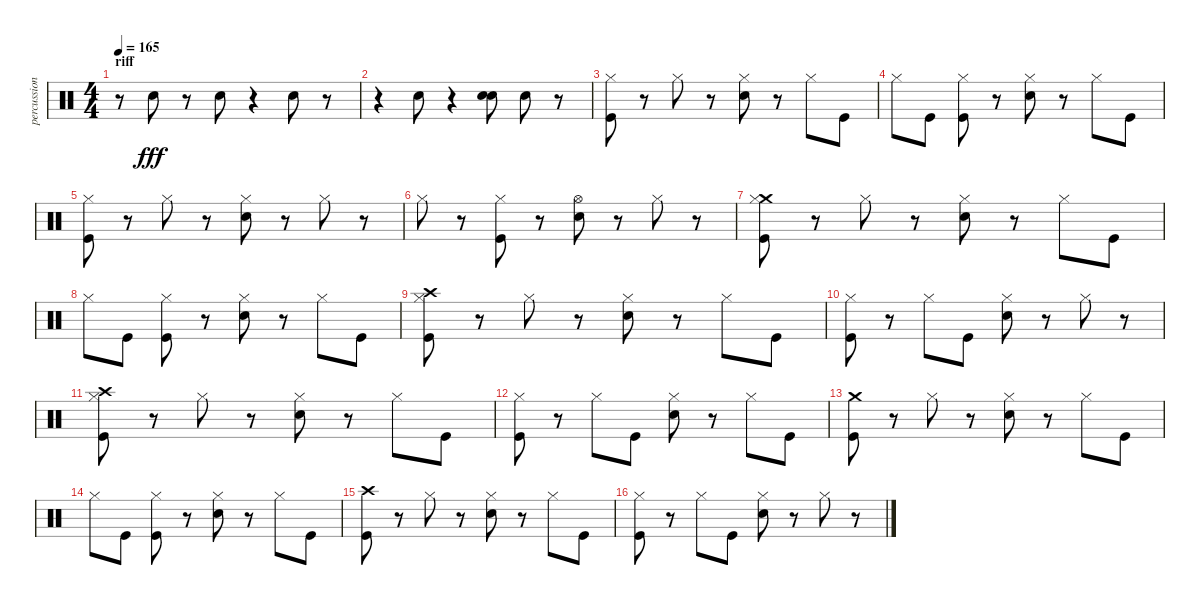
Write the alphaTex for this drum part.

\track ("percussion (Paice)" "percussion") {instrument percussion}
\staff {score}
\articulation defaults
\ts (4 4)
\section ("" "riff")
\tempo 165
\clef neutral
\ks c
r.8{dy fff} "Snare (hit) 2".8 r.8 "Snare (hit) 2".8 r.4 "Snare (hit) 2".8 r.8 |
r.4 "Snare (hit) 2".8 r.4 ("Snare (hit) 2" "Snare (hit) 2").8 "Snare (hit) 2".8 r.8 |
("Kick (hit)" "Hi-Hat (closed)").8 r.8 "Hi-Hat (closed)".8 r.8 ("Snare (hit) 2" "Hi-Hat (closed)").8 r.8 "Hi-Hat (closed)".8 "Kick (hit)".8 |
"Hi-Hat (closed)".8 "Kick (hit)".8 ("Kick (hit)" "Hi-Hat (closed)").8 r.8 ("Snare (hit) 2" "Hi-Hat (closed)").8 r.8 "Hi-Hat (closed)".8 "Kick (hit)".8 |
("Kick (hit)" "Hi-Hat (closed)").8 r.8 "Hi-Hat (closed)".8 r.8 ("Snare (hit) 2" "Hi-Hat (closed)").8 r.8 "Hi-Hat (closed)".8 r.8 |
"Hi-Hat (closed)".8 r.8 ("Kick (hit)" "Hi-Hat (closed)").8 r.8 ("Snare (hit) 2" "Hi-Hat (open)").8 r.8 "Hi-Hat (closed)".8 r.8 |
("Crash medium (hit)" "Kick (hit)" "Hi-Hat (closed)").8 r.8 "Hi-Hat (closed)".8 r.8 ("Snare (hit) 2" "Hi-Hat (closed)").8 r.8 "Hi-Hat (closed)".8 "Kick (hit)".8 |
"Hi-Hat (closed)".8 "Kick (hit)".8 ("Kick (hit)" "Hi-Hat (closed)").8 r.8 ("Snare (hit) 2" "Hi-Hat (closed)").8 r.8 "Hi-Hat (closed)".8 "Kick (hit)".8 |
("Crash high (hit)" "Kick (hit)" "Hi-Hat (closed)").8 r.8 "Hi-Hat (closed)".8 r.8 ("Snare (hit) 2" "Hi-Hat (closed)").8 r.8 "Hi-Hat (closed)".8 "Kick (hit)".8 |
("Kick (hit)" "Hi-Hat (closed)").8 r.8 "Hi-Hat (closed)".8 "Kick (hit)".8 ("Snare (hit) 2" "Hi-Hat (closed)").8 r.8 "Hi-Hat (closed)".8 r.8 |
("Crash high (hit)" "Kick (hit)" "Hi-Hat (closed)").8 r.8 "Hi-Hat (closed)".8 r.8 ("Snare (hit) 2" "Hi-Hat (closed)").8 r.8 "Hi-Hat (closed)".8 "Kick (hit)".8 |
("Kick (hit)" "Hi-Hat (closed)").8 r.8 "Hi-Hat (closed)".8 "Kick (hit)".8 ("Snare (hit) 2" "Hi-Hat (closed)").8 r.8 "Hi-Hat (closed)".8 "Kick (hit)".8 |
("Crash medium (hit)" "Kick (hit)").8 r.8 "Hi-Hat (closed)".8 r.8 ("Snare (hit) 2" "Hi-Hat (closed)").8 r.8 "Hi-Hat (closed)".8 "Kick (hit)".8 |
"Hi-Hat (closed)".8 "Kick (hit)".8 ("Kick (hit)" "Hi-Hat (closed)").8 r.8 ("Snare (hit) 2" "Hi-Hat (closed)").8 r.8 "Hi-Hat (closed)".8 "Kick (hit)".8 |
("Crash high (hit)" "Kick (hit)").8 r.8 "Hi-Hat (closed)".8 r.8 ("Snare (hit) 2" "Hi-Hat (closed)").8 r.8 "Hi-Hat (closed)".8 "Kick (hit)".8 |
("Kick (hit)" "Hi-Hat (closed)").8 r.8 "Hi-Hat (closed)".8 "Kick (hit)".8 ("Snare (hit) 2" "Hi-Hat (closed)").8 r.8 "Hi-Hat (closed)".8 r.8
